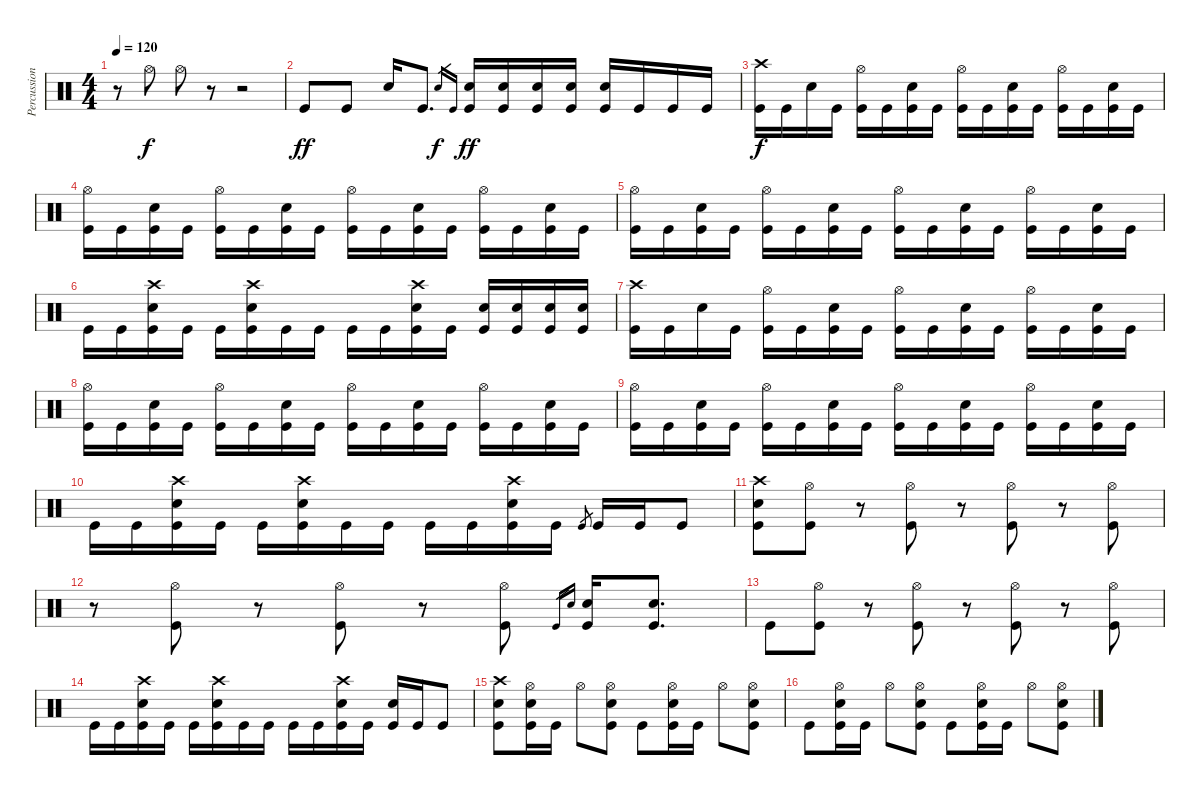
\track ("Percussion" "Percussion") {instrument percussion}
\staff {score}
\articulation defaults
\ts (4 4)
\tempo 120
\clef neutral
\ks c
r.8{dy f} "Hi-Hat (open)".8 "Hi-Hat (open)".8 r.8 r.2 |
"Kick (hit)".8{dy ff} "Kick (hit)".8 "Snare (hit) 2".16 "Kick (hit)".8{d} "Snare (hit) 2".16{gr dy f} "Kick (hit)".16{gr} ("Snare (hit) 2" "Kick (hit)").16{dy ff} ("Kick (hit)" "Snare (hit) 2").16 ("Kick (hit)" "Snare (hit) 2").16 ("Kick (hit)" "Snare (hit) 2").16 ("Snare (hit) 2" "Kick (hit)").16 "Kick (hit)".16 "Kick (hit)".16 "Kick (hit)".16 |
("Crash high (hit)" "Kick (hit)").16{dy f} "Kick (hit)".16 "Snare (hit) 2".16 "Kick (hit)".16 ("Kick (hit)" "Hi-Hat (open)").16 "Kick (hit)".16 ("Kick (hit)" "Snare (hit) 2").16 "Kick (hit)".16 ("Kick (hit)" "Hi-Hat (open)").16 "Kick (hit)".16 ("Kick (hit)" "Snare (hit) 2").16 "Kick (hit)".16 ("Kick (hit)" "Hi-Hat (open)").16 "Kick (hit)".16 ("Kick (hit)" "Snare (hit) 2").16 "Kick (hit)".16 |
("Kick (hit)" "Hi-Hat (open)").16 "Kick (hit)".16 ("Kick (hit)" "Snare (hit) 2").16 "Kick (hit)".16 ("Kick (hit)" "Hi-Hat (open)").16 "Kick (hit)".16 ("Kick (hit)" "Snare (hit) 2").16 "Kick (hit)".16 ("Kick (hit)" "Hi-Hat (open)").16 "Kick (hit)".16 ("Kick (hit)" "Snare (hit) 2").16 "Kick (hit)".16 ("Kick (hit)" "Hi-Hat (open)").16 "Kick (hit)".16 ("Kick (hit)" "Snare (hit) 2").16 "Kick (hit)".16 |
("Kick (hit)" "Hi-Hat (open)").16 "Kick (hit)".16 ("Kick (hit)" "Snare (hit) 2").16 "Kick (hit)".16 ("Kick (hit)" "Hi-Hat (open)").16 "Kick (hit)".16 ("Kick (hit)" "Snare (hit) 2").16 "Kick (hit)".16 ("Kick (hit)" "Hi-Hat (open)").16 "Kick (hit)".16 ("Kick (hit)" "Snare (hit) 2").16 "Kick (hit)".16 ("Kick (hit)" "Hi-Hat (open)").16 "Kick (hit)".16 ("Kick (hit)" "Snare (hit) 2").16 "Kick (hit)".16 |
"Kick (hit)".16 "Kick (hit)".16 ("Snare (hit) 2" "Crash high (hit)" "Kick (hit)").16 "Kick (hit)".16 "Kick (hit)".16 ("Snare (hit) 2" "Crash high (hit)" "Kick (hit)").16 "Kick (hit)".16 "Kick (hit)".16 "Kick (hit)".16 "Kick (hit)".16 ("Snare (hit) 2" "Kick (hit)" "Crash high (hit)").16 "Kick (hit)".16 ("Kick (hit)" "Snare (hit) 2").16 ("Snare (hit) 2" "Kick (hit)").16 ("Kick (hit)" "Snare (hit) 2").16 ("Snare (hit) 2" "Kick (hit)").16 |
("Crash high (hit)" "Kick (hit)").16 "Kick (hit)".16 "Snare (hit) 2".16 "Kick (hit)".16 ("Kick (hit)" "Hi-Hat (open)").16 "Kick (hit)".16 ("Kick (hit)" "Snare (hit) 2").16 "Kick (hit)".16 ("Kick (hit)" "Hi-Hat (open)").16 "Kick (hit)".16 ("Kick (hit)" "Snare (hit) 2").16 "Kick (hit)".16 ("Kick (hit)" "Hi-Hat (open)").16 "Kick (hit)".16 ("Kick (hit)" "Snare (hit) 2").16 "Kick (hit)".16 |
("Kick (hit)" "Hi-Hat (open)").16 "Kick (hit)".16 ("Kick (hit)" "Snare (hit) 2").16 "Kick (hit)".16 ("Kick (hit)" "Hi-Hat (open)").16 "Kick (hit)".16 ("Kick (hit)" "Snare (hit) 2").16 "Kick (hit)".16 ("Kick (hit)" "Hi-Hat (open)").16 "Kick (hit)".16 ("Kick (hit)" "Snare (hit) 2").16 "Kick (hit)".16 ("Kick (hit)" "Hi-Hat (open)").16 "Kick (hit)".16 ("Kick (hit)" "Snare (hit) 2").16 "Kick (hit)".16 |
("Kick (hit)" "Hi-Hat (open)").16 "Kick (hit)".16 ("Kick (hit)" "Snare (hit) 2").16 "Kick (hit)".16 ("Kick (hit)" "Hi-Hat (open)").16 "Kick (hit)".16 ("Kick (hit)" "Snare (hit) 2").16 "Kick (hit)".16 ("Kick (hit)" "Hi-Hat (open)").16 "Kick (hit)".16 ("Kick (hit)" "Snare (hit) 2").16 "Kick (hit)".16 ("Kick (hit)" "Hi-Hat (open)").16 "Kick (hit)".16 ("Kick (hit)" "Snare (hit) 2").16 "Kick (hit)".16 |
"Kick (hit)".16 "Kick (hit)".16 ("Snare (hit) 2" "Crash high (hit)" "Kick (hit)").16 "Kick (hit)".16 "Kick (hit)".16 ("Snare (hit) 2" "Crash high (hit)" "Kick (hit)").16 "Kick (hit)".16 "Kick (hit)".16 "Kick (hit)".16 "Kick (hit)".16 ("Snare (hit) 2" "Kick (hit)" "Crash high (hit)").16 "Kick (hit)".16 "Kick (hit)".8{gr} "Kick (hit)".16 "Kick (hit)".16 "Kick (hit)".8 |
("Snare (hit) 2" "Kick (hit)" "Crash high (hit)").8 ("Hi-Hat (open)" "Kick (hit)").8 r.8 ("Hi-Hat (open)" "Kick (hit)").8 r.8 ("Kick (hit)" "Hi-Hat (open)").8 r.8 ("Kick (hit)" "Hi-Hat (open)").8 |
r.8 ("Hi-Hat (open)" "Kick (hit)").8 r.8 ("Kick (hit)" "Hi-Hat (open)").8 r.8 ("Kick (hit)" "Hi-Hat (open)").8 "Kick (hit)".16{gr} "Snare (hit) 2".16{gr} ("Kick (hit)" "Snare (hit) 2").16 ("Kick (hit)" "Snare (hit) 2").8{d} |
"Kick (hit)".8 ("Hi-Hat (open)" "Kick (hit)").8 r.8 ("Kick (hit)" "Hi-Hat (open)").8 r.8 ("Kick (hit)" "Hi-Hat (open)").8 r.8 ("Kick (hit)" "Hi-Hat (open)").8 |
"Kick (hit)".16 "Kick (hit)".16 ("Snare (hit) 2" "Crash high (hit)" "Kick (hit)").16 "Kick (hit)".16 "Kick (hit)".16 ("Snare (hit) 2" "Crash high (hit)" "Kick (hit)").16 "Kick (hit)".16 "Kick (hit)".16 "Kick (hit)".16 "Kick (hit)".16 ("Snare (hit) 2" "Kick (hit)" "Crash high (hit)").16 "Kick (hit)".16 ("Kick (hit)" "Snare (hit) 2").16 "Kick (hit)".16 "Kick (hit)".8 |
("Kick (hit)" "Crash high (hit)" "Snare (hit) 2").8 ("Kick (hit)" "Hi-Hat (open)" "Snare (hit) 2").16 "Kick (hit)".16 "Hi-Hat (open)".8 ("Kick (hit)" "Hi-Hat (open)" "Snare (hit) 2").8 "Kick (hit)".8 ("Kick (hit)" "Hi-Hat (open)" "Snare (hit) 2").16 "Kick (hit)".16 "Hi-Hat (open)".8 ("Kick (hit)" "Hi-Hat (open)" "Snare (hit) 2").8 |
"Kick (hit)".8 ("Kick (hit)" "Hi-Hat (open)" "Snare (hit) 2").16 "Kick (hit)".16 "Hi-Hat (open)".8 ("Kick (hit)" "Hi-Hat (open)" "Snare (hit) 2").8 "Kick (hit)".8 ("Kick (hit)" "Hi-Hat (open)" "Snare (hit) 2").16 "Kick (hit)".16 "Hi-Hat (open)".8 ("Kick (hit)" "Hi-Hat (open)" "Snare (hit) 2").8
